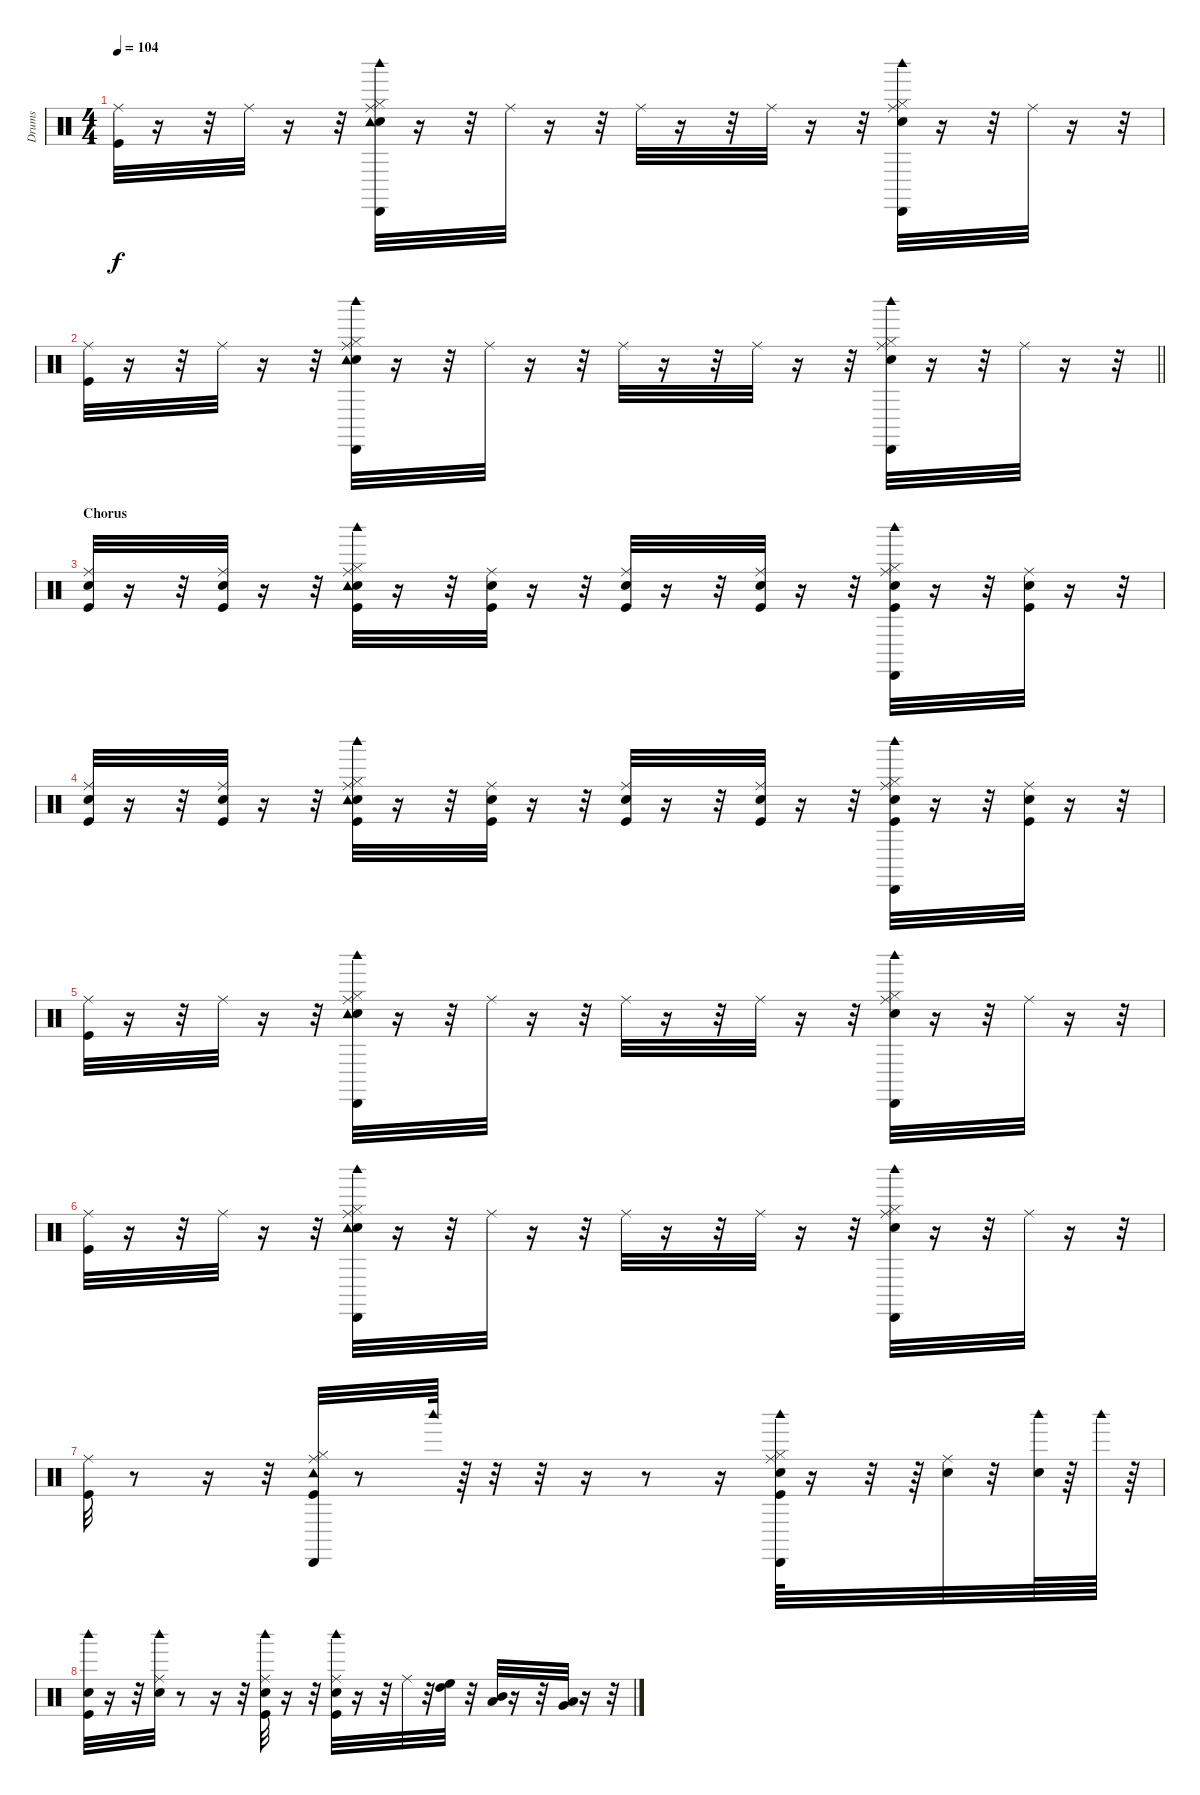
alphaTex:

\track ("Drums" "Drums") {instrument percussion}
\staff {score}
\articulation defaults
\ts (4 4)
\tempo 104
\clef neutral
\ks c
("Kick (hit)" "Ride (middle)").32{dy f} r.16 r.32 "Ride (middle)".32 r.16 r.32 ("Snare (hit) 2" "Hi-Hat (closed)" "Ride (middle)" "Tambourine (hit)" "Cabasa (hit)" "Woodblock high (hit)").32 r.16 r.32 "Ride (middle)".32 r.16 r.32 "Ride (middle)".32 r.16 r.32 "Ride (middle)".32 r.16 r.32 ("Snare (hit) 2" "Hi-Hat (closed)" "Ride (middle)" "Cabasa (hit)" "Woodblock high (hit)").32 r.16 r.32 "Ride (middle)".32 r.16 r.32 |
\barLineRight lightlight
("Kick (hit)" "Ride (middle)").32 r.16 r.32 "Ride (middle)".32 r.16 r.32 ("Snare (hit) 2" "Hi-Hat (closed)" "Ride (middle)" "Tambourine (hit)" "Cabasa (hit)" "Woodblock high (hit)").32 r.16 r.32 "Ride (middle)".32 r.16 r.32 "Ride (middle)".32 r.16 r.32 "Ride (middle)".32 r.16 r.32 ("Snare (hit) 2" "Hi-Hat (closed)" "Ride (middle)" "Cabasa (hit)" "Woodblock high (hit)").32 r.16 r.32 "Ride (middle)".32 r.16 r.32 |
\section ("" "Chorus")
("Kick (hit)" "Snare (hit) 2" "Ride (middle)").32 r.16 r.32 ("Kick (hit)" "Snare (hit) 2" "Ride (middle)").32 r.16 r.32 ("Kick (hit)" "Snare (hit) 2" "Hi-Hat (closed)" "Ride (middle)" "Tambourine (hit)" "Woodblock high (hit)").32 r.16 r.32 ("Kick (hit)" "Snare (hit) 2" "Ride (middle)").32 r.16 r.32 ("Kick (hit)" "Snare (hit) 2" "Ride (middle)").32 r.16 r.32 ("Kick (hit)" "Snare (hit) 2" "Ride (middle)").32 r.16 r.32 ("Kick (hit)" "Snare (hit) 2" "Hi-Hat (closed)" "Ride (middle)" "Cabasa (hit)" "Woodblock high (hit)").32 r.16 r.32 ("Kick (hit)" "Snare (hit) 2" "Ride (middle)").32 r.16 r.32 |
("Kick (hit)" "Snare (hit) 2" "Ride (middle)").32 r.16 r.32 ("Kick (hit)" "Snare (hit) 2" "Ride (middle)").32 r.16 r.32 ("Kick (hit)" "Snare (hit) 2" "Hi-Hat (closed)" "Ride (middle)" "Tambourine (hit)" "Woodblock high (hit)").32 r.16 r.32 ("Kick (hit)" "Snare (hit) 2" "Ride (middle)").32 r.16 r.32 ("Kick (hit)" "Snare (hit) 2" "Ride (middle)").32 r.16 r.32 ("Kick (hit)" "Snare (hit) 2" "Ride (middle)").32 r.16 r.32 ("Kick (hit)" "Snare (hit) 2" "Hi-Hat (closed)" "Ride (middle)" "Cabasa (hit)" "Woodblock high (hit)").32 r.16 r.32 ("Kick (hit)" "Snare (hit) 2" "Ride (middle)").32 r.16 r.32 |
("Kick (hit)" "Ride (middle)").32 r.16 r.32 "Ride (middle)".32 r.16 r.32 ("Snare (hit) 2" "Hi-Hat (closed)" "Ride (middle)" "Tambourine (hit)" "Cabasa (hit)" "Woodblock high (hit)").32 r.16 r.32 "Ride (middle)".32 r.16 r.32 "Ride (middle)".32 r.16 r.32 "Ride (middle)".32 r.16 r.32 ("Snare (hit) 2" "Hi-Hat (closed)" "Ride (middle)" "Cabasa (hit)" "Woodblock high (hit)").32 r.16 r.32 "Ride (middle)".32 r.16 r.32 |
("Kick (hit)" "Ride (middle)").32 r.16 r.32 "Ride (middle)".32 r.16 r.32 ("Snare (hit) 2" "Hi-Hat (closed)" "Ride (middle)" "Tambourine (hit)" "Cabasa (hit)" "Woodblock high (hit)").32 r.16 r.32 "Ride (middle)".32 r.16 r.32 "Ride (middle)".32 r.16 r.32 "Ride (middle)".32 r.16 r.32 ("Snare (hit) 2" "Hi-Hat (closed)" "Ride (middle)" "Cabasa (hit)" "Woodblock high (hit)").32 r.16 r.32 "Ride (middle)".32 r.16 r.32 |
("Kick (hit)" "Ride (middle)").32 r.8 r.16 r.32 ("Kick (hit)" "Hi-Hat (closed)" "Ride (middle)" "Tambourine (hit)" "Cabasa (hit)").32 r.8 "Woodblock high (hit)".64 r.64 r.32 r.32 r.16 r.8 r.16 ("Kick (hit)" "Snare (hit) 2" "Hi-Hat (closed)" "Ride (middle)" "Cabasa (hit)" "Woodblock high (hit)").64 r.16 r.32 r.64 ("Snare (hit) 2" "Ride (middle)").32 r.32 ("Snare (hit) 2" "Woodblock high (hit)").64 r.64 "Woodblock high (hit)".64 r.64 |
("Kick (hit)" "Snare (hit) 2" "Woodblock high (hit)").32 r.16 r.32 ("Snare (hit) 2" "Ride (middle)" "Woodblock high (hit)").32 r.8 r.16 r.32 ("Kick (hit)" "Snare (hit) 2" "Ride (middle)" "Woodblock high (hit)").32 r.16 r.32 ("Kick (hit)" "Snare (hit) 2" "Ride (middle)" "Woodblock high (hit)").32 r.16 r.32 "Ride (middle)".32 r.32 ("High Tom (hit)" "High Floor Tom (hit)").32 r.32 ("Low Tom (hit)" "Mid Tom (hit)").32 r.16 r.32 ("Low Floor Tom (hit)" "Very Low Tom (hit)").32 r.16 r.32
